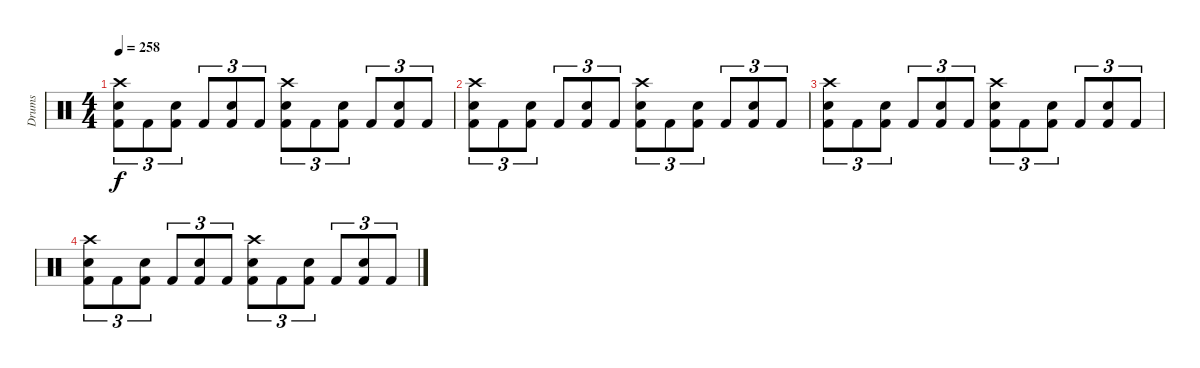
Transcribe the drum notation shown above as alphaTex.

\track ("Drums" "Drums") {instrument percussion}
\staff {score}
\articulation defaults
\ts (4 4)
\tempo 258
\clef neutral
\ks c
("Kick (hit) 2" "Snare (hit) 2" "Crash high (hit)").8{tu (3 2) dy f} "Kick (hit) 2".8{tu (3 2)} ("Kick (hit) 2" "Snare (hit) 2").8{tu (3 2)} "Kick (hit) 2".8{tu (3 2)} ("Kick (hit) 2" "Snare (hit) 2").8{tu (3 2)} "Kick (hit) 2".8{tu (3 2)} ("Kick (hit) 2" "Snare (hit) 2" "Crash high (hit)").8{tu (3 2)} "Kick (hit) 2".8{tu (3 2)} ("Kick (hit) 2" "Snare (hit) 2").8{tu (3 2)} "Kick (hit) 2".8{tu (3 2)} ("Kick (hit) 2" "Snare (hit) 2").8{tu (3 2)} "Kick (hit) 2".8{tu (3 2)} |
("Kick (hit) 2" "Snare (hit) 2" "Crash high (hit)").8{tu (3 2)} "Kick (hit) 2".8{tu (3 2)} ("Kick (hit) 2" "Snare (hit) 2").8{tu (3 2)} "Kick (hit) 2".8{tu (3 2)} ("Kick (hit) 2" "Snare (hit) 2").8{tu (3 2)} "Kick (hit) 2".8{tu (3 2)} ("Kick (hit) 2" "Snare (hit) 2" "Crash high (hit)").8{tu (3 2)} "Kick (hit) 2".8{tu (3 2)} ("Kick (hit) 2" "Snare (hit) 2").8{tu (3 2)} "Kick (hit) 2".8{tu (3 2)} ("Kick (hit) 2" "Snare (hit) 2").8{tu (3 2)} "Kick (hit) 2".8{tu (3 2)} |
("Kick (hit) 2" "Snare (hit) 2" "Crash high (hit)").8{tu (3 2)} "Kick (hit) 2".8{tu (3 2)} ("Kick (hit) 2" "Snare (hit) 2").8{tu (3 2)} "Kick (hit) 2".8{tu (3 2)} ("Kick (hit) 2" "Snare (hit) 2").8{tu (3 2)} "Kick (hit) 2".8{tu (3 2)} ("Kick (hit) 2" "Snare (hit) 2" "Crash high (hit)").8{tu (3 2)} "Kick (hit) 2".8{tu (3 2)} ("Kick (hit) 2" "Snare (hit) 2").8{tu (3 2)} "Kick (hit) 2".8{tu (3 2)} ("Kick (hit) 2" "Snare (hit) 2").8{tu (3 2)} "Kick (hit) 2".8{tu (3 2)} |
("Kick (hit) 2" "Snare (hit) 2" "Crash high (hit)").8{tu (3 2)} "Kick (hit) 2".8{tu (3 2)} ("Kick (hit) 2" "Snare (hit) 2").8{tu (3 2)} "Kick (hit) 2".8{tu (3 2)} ("Kick (hit) 2" "Snare (hit) 2").8{tu (3 2)} "Kick (hit) 2".8{tu (3 2)} ("Kick (hit) 2" "Snare (hit) 2" "Crash high (hit)").8{tu (3 2)} "Kick (hit) 2".8{tu (3 2)} ("Kick (hit) 2" "Snare (hit) 2").8{tu (3 2)} "Kick (hit) 2".8{tu (3 2)} ("Kick (hit) 2" "Snare (hit) 2").8{tu (3 2)} "Kick (hit) 2".8{tu (3 2)}
